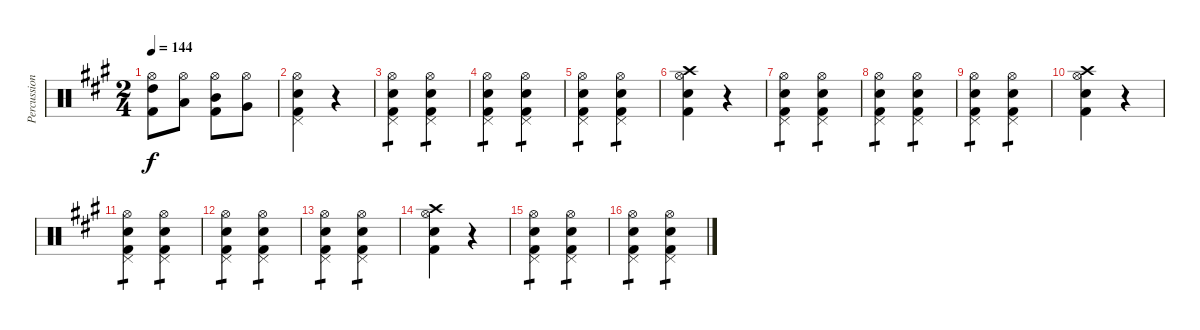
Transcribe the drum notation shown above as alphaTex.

\track ("Percussion" "Percussion") {instrument percussion}
\staff {score}
\articulation defaults
\ts (2 4)
\tempo 144
\clef neutral
\ks a
("Hi-Hat (open)" "High Tom (hit)" "Kick (hit) 2").8{dy f} ("Hi-Hat (open)" "Low Tom (hit)").8 ("Hi-Hat (open)" "Mid Tom (hit)" "Kick (hit) 2").8 ("Hi-Hat (open)" "Very Low Tom (hit)").8 |
("Pedal Hi-Hat (hit)" "Hi-Hat (open)" "Snare (hit) 2" "Kick (hit) 2").4 r.4 |
("Pedal Hi-Hat (hit)" "Hi-Hat (open)" "Snare (hit) 2" "Kick (hit) 2").4{tp 1} ("Pedal Hi-Hat (hit)" "Hi-Hat (open)" "Snare (hit) 2" "Kick (hit) 2").4{tp 1} |
("Pedal Hi-Hat (hit)" "Hi-Hat (open)" "Snare (hit) 2" "Kick (hit) 2").4{tp 1} ("Pedal Hi-Hat (hit)" "Hi-Hat (open)" "Snare (hit) 2" "Kick (hit) 2").4{tp 1} |
("Pedal Hi-Hat (hit)" "Hi-Hat (open)" "Snare (hit) 2" "Kick (hit) 2").4{tp 1} ("Pedal Hi-Hat (hit)" "Hi-Hat (open)" "Snare (hit) 2" "Kick (hit) 2").4{tp 1} |
("Crash high (hit)" "Hi-Hat (open)" "Snare (hit) 2" "Kick (hit) 2").4 r.4 |
("Pedal Hi-Hat (hit)" "Hi-Hat (open)" "Snare (hit) 2" "Kick (hit) 2").4{tp 1} ("Pedal Hi-Hat (hit)" "Hi-Hat (open)" "Snare (hit) 2" "Kick (hit) 2").4{tp 1} |
("Pedal Hi-Hat (hit)" "Hi-Hat (open)" "Snare (hit) 2" "Kick (hit) 2").4{tp 1} ("Pedal Hi-Hat (hit)" "Hi-Hat (open)" "Snare (hit) 2" "Kick (hit) 2").4{tp 1} |
("Pedal Hi-Hat (hit)" "Hi-Hat (open)" "Snare (hit) 2" "Kick (hit) 2").4{tp 1} ("Pedal Hi-Hat (hit)" "Hi-Hat (open)" "Snare (hit) 2" "Kick (hit) 2").4{tp 1} |
("Crash high (hit)" "Hi-Hat (open)" "Snare (hit) 2" "Kick (hit) 2").4 r.4 |
("Pedal Hi-Hat (hit)" "Hi-Hat (open)" "Snare (hit) 2" "Kick (hit) 2").4{tp 1} ("Pedal Hi-Hat (hit)" "Hi-Hat (open)" "Snare (hit) 2" "Kick (hit) 2").4{tp 1} |
("Pedal Hi-Hat (hit)" "Hi-Hat (open)" "Snare (hit) 2" "Kick (hit) 2").4{tp 1} ("Pedal Hi-Hat (hit)" "Hi-Hat (open)" "Snare (hit) 2" "Kick (hit) 2").4{tp 1} |
("Pedal Hi-Hat (hit)" "Hi-Hat (open)" "Snare (hit) 2" "Kick (hit) 2").4{tp 1} ("Pedal Hi-Hat (hit)" "Hi-Hat (open)" "Snare (hit) 2" "Kick (hit) 2").4{tp 1} |
("Crash high (hit)" "Hi-Hat (open)" "Snare (hit) 2" "Kick (hit) 2").4 r.4 |
("Pedal Hi-Hat (hit)" "Hi-Hat (open)" "Snare (hit) 2" "Kick (hit) 2").4{tp 1} ("Pedal Hi-Hat (hit)" "Hi-Hat (open)" "Snare (hit) 2" "Kick (hit) 2").4{tp 1} |
("Pedal Hi-Hat (hit)" "Hi-Hat (open)" "Snare (hit) 2" "Kick (hit) 2").4{tp 1} ("Pedal Hi-Hat (hit)" "Hi-Hat (open)" "Snare (hit) 2" "Kick (hit) 2").4{tp 1}
